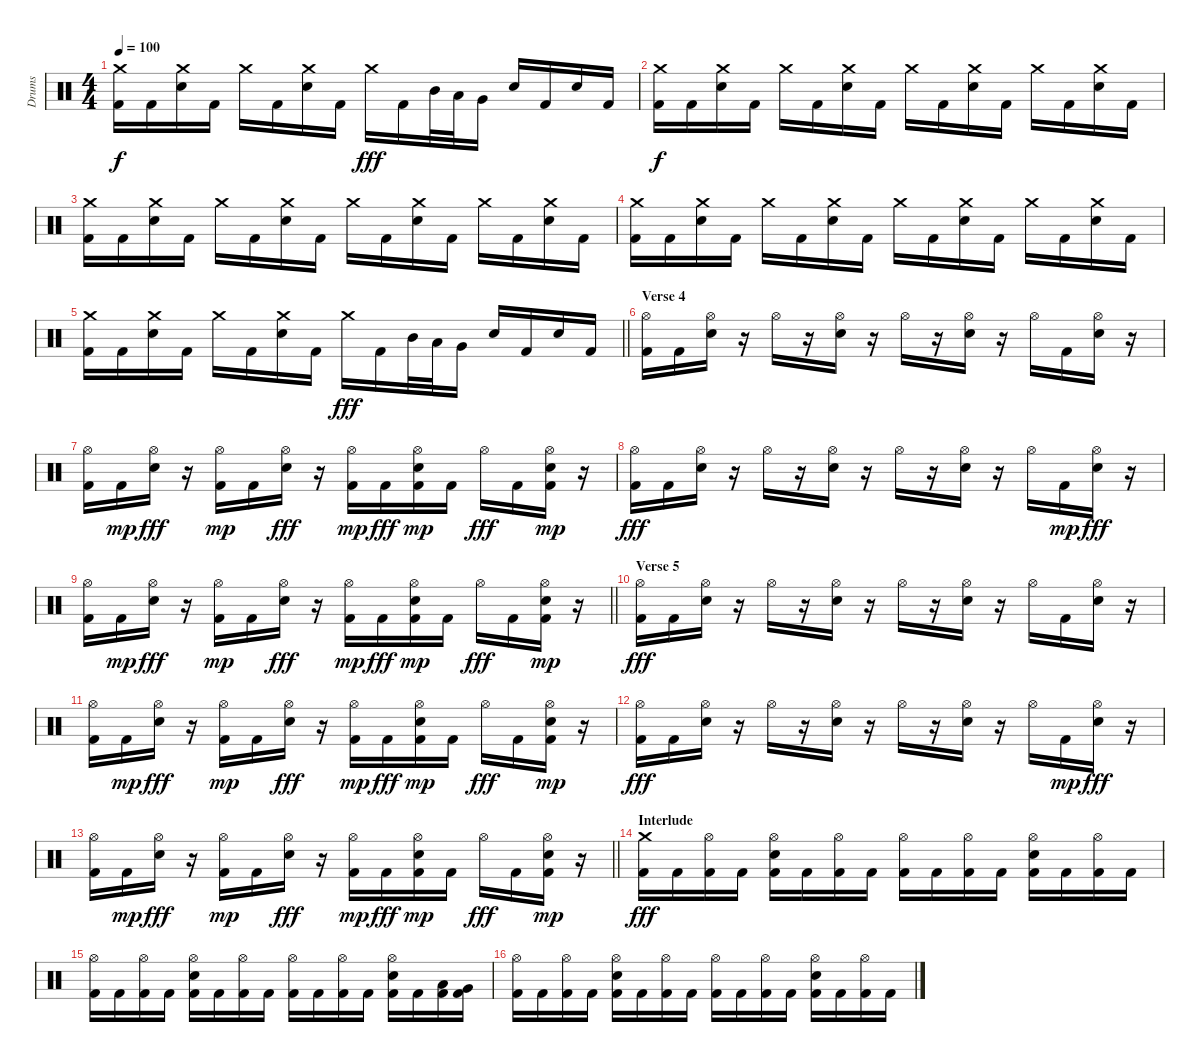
\track ("Drums" "Drums") {instrument percussion}
\staff {score}
\articulation defaults
\ts (4 4)
\tempo 100
\clef neutral
\ks c
("Crash medium (hit)" "Kick (hit) 2").16{dy f} "Kick (hit) 2".16 ("Crash medium (hit)" "Electric Snare (hit)").16 "Kick (hit) 2".16 "Crash medium (hit)".16 "Kick (hit) 2".16 ("Crash medium (hit)" "Electric Snare (hit)").16 "Kick (hit) 2".16 "Crash medium (hit)".16{dy fff} "Kick (hit) 2".16 "Mid Tom (hit)".32 "Low Tom (hit)".32 "Very Low Tom (hit)".16 "Electric Snare (hit)".16 "Kick (hit) 2".16 "Electric Snare (hit)".16 "Kick (hit) 2".16 |
("Crash medium (hit)" "Kick (hit) 2").16{dy f} "Kick (hit) 2".16 ("Crash medium (hit)" "Electric Snare (hit)").16 "Kick (hit) 2".16 "Crash medium (hit)".16 "Kick (hit) 2".16 ("Crash medium (hit)" "Electric Snare (hit)").16 "Kick (hit) 2".16 "Crash medium (hit)".16 "Kick (hit) 2".16 ("Crash medium (hit)" "Electric Snare (hit)").16 "Kick (hit) 2".16 "Crash medium (hit)".16 "Kick (hit) 2".16 ("Crash medium (hit)" "Electric Snare (hit)").16 "Kick (hit) 2".16 |
("Crash medium (hit)" "Kick (hit) 2").16 "Kick (hit) 2".16 ("Crash medium (hit)" "Electric Snare (hit)").16 "Kick (hit) 2".16 "Crash medium (hit)".16 "Kick (hit) 2".16 ("Crash medium (hit)" "Electric Snare (hit)").16 "Kick (hit) 2".16 "Crash medium (hit)".16 "Kick (hit) 2".16 ("Crash medium (hit)" "Electric Snare (hit)").16 "Kick (hit) 2".16 "Crash medium (hit)".16 "Kick (hit) 2".16 ("Crash medium (hit)" "Electric Snare (hit)").16 "Kick (hit) 2".16 |
("Crash medium (hit)" "Kick (hit) 2").16 "Kick (hit) 2".16 ("Crash medium (hit)" "Electric Snare (hit)").16 "Kick (hit) 2".16 "Crash medium (hit)".16 "Kick (hit) 2".16 ("Crash medium (hit)" "Electric Snare (hit)").16 "Kick (hit) 2".16 "Crash medium (hit)".16 "Kick (hit) 2".16 ("Crash medium (hit)" "Electric Snare (hit)").16 "Kick (hit) 2".16 "Crash medium (hit)".16 "Kick (hit) 2".16 ("Crash medium (hit)" "Electric Snare (hit)").16 "Kick (hit) 2".16 |
\barLineRight lightlight
("Crash medium (hit)" "Kick (hit) 2").16 "Kick (hit) 2".16 ("Crash medium (hit)" "Electric Snare (hit)").16 "Kick (hit) 2".16 "Crash medium (hit)".16 "Kick (hit) 2".16 ("Crash medium (hit)" "Electric Snare (hit)").16 "Kick (hit) 2".16 "Crash medium (hit)".16{dy fff} "Kick (hit) 2".16 "Mid Tom (hit)".32 "Low Tom (hit)".32 "Very Low Tom (hit)".16 "Electric Snare (hit)".16 "Kick (hit) 2".16 "Electric Snare (hit)".16 "Kick (hit) 2".16 |
\section ("" "Verse 4")
("Hi-Hat (open)" "Kick (hit) 2").16 "Kick (hit) 2".16 ("Hi-Hat (open)" "Electric Snare (hit)").16 r.16 "Hi-Hat (open)".16 r.16 ("Hi-Hat (open)" "Electric Snare (hit)").16 r.16 "Hi-Hat (open)".16 r.16 ("Hi-Hat (open)" "Electric Snare (hit)").16 r.16 "Hi-Hat (open)".16 "Kick (hit) 2".16 ("Hi-Hat (open)" "Electric Snare (hit)").16 r.16 |
("Hi-Hat (open)" "Kick (hit) 2").16 "Kick (hit) 2".16{dy mp} ("Hi-Hat (open)" "Electric Snare (hit)").16{dy fff} r.16 ("Hi-Hat (open)" "Kick (hit) 2").16{dy mp} "Kick (hit) 2".16 ("Hi-Hat (open)" "Electric Snare (hit)").16{dy fff} r.16 ("Hi-Hat (open)" "Kick (hit) 2").16{dy mp} "Kick (hit) 2".16{dy fff} ("Hi-Hat (open)" "Electric Snare (hit)" "Kick (hit) 2").16{dy mp} "Kick (hit) 2".16 "Hi-Hat (open)".16{dy fff} "Kick (hit) 2".16 ("Hi-Hat (open)" "Electric Snare (hit)" "Kick (hit) 2").16{dy mp} r.16 |
("Hi-Hat (open)" "Kick (hit) 2").16{dy fff} "Kick (hit) 2".16 ("Hi-Hat (open)" "Electric Snare (hit)").16 r.16 "Hi-Hat (open)".16 r.16 ("Hi-Hat (open)" "Electric Snare (hit)").16 r.16 "Hi-Hat (open)".16 r.16 ("Hi-Hat (open)" "Electric Snare (hit)").16 r.16 "Hi-Hat (open)".16 "Kick (hit) 2".16{dy mp} ("Hi-Hat (open)" "Electric Snare (hit)").16{dy fff} r.16 |
\barLineRight lightlight
("Hi-Hat (open)" "Kick (hit) 2").16 "Kick (hit) 2".16{dy mp} ("Hi-Hat (open)" "Electric Snare (hit)").16{dy fff} r.16 ("Hi-Hat (open)" "Kick (hit) 2").16{dy mp} "Kick (hit) 2".16 ("Hi-Hat (open)" "Electric Snare (hit)").16{dy fff} r.16 ("Hi-Hat (open)" "Kick (hit) 2").16{dy mp} "Kick (hit) 2".16{dy fff} ("Hi-Hat (open)" "Electric Snare (hit)" "Kick (hit) 2").16{dy mp} "Kick (hit) 2".16 "Hi-Hat (open)".16{dy fff} "Kick (hit) 2".16 ("Hi-Hat (open)" "Electric Snare (hit)" "Kick (hit) 2").16{dy mp} r.16 |
\section ("" "Verse 5")
("Hi-Hat (open)" "Kick (hit) 2").16{dy fff} "Kick (hit) 2".16 ("Hi-Hat (open)" "Electric Snare (hit)").16 r.16 "Hi-Hat (open)".16 r.16 ("Hi-Hat (open)" "Electric Snare (hit)").16 r.16 "Hi-Hat (open)".16 r.16 ("Hi-Hat (open)" "Electric Snare (hit)").16 r.16 "Hi-Hat (open)".16 "Kick (hit) 2".16 ("Hi-Hat (open)" "Electric Snare (hit)").16 r.16 |
("Hi-Hat (open)" "Kick (hit) 2").16 "Kick (hit) 2".16{dy mp} ("Hi-Hat (open)" "Electric Snare (hit)").16{dy fff} r.16 ("Hi-Hat (open)" "Kick (hit) 2").16{dy mp} "Kick (hit) 2".16 ("Hi-Hat (open)" "Electric Snare (hit)").16{dy fff} r.16 ("Hi-Hat (open)" "Kick (hit) 2").16{dy mp} "Kick (hit) 2".16{dy fff} ("Hi-Hat (open)" "Electric Snare (hit)" "Kick (hit) 2").16{dy mp} "Kick (hit) 2".16 "Hi-Hat (open)".16{dy fff} "Kick (hit) 2".16 ("Hi-Hat (open)" "Electric Snare (hit)" "Kick (hit) 2").16{dy mp} r.16 |
("Hi-Hat (open)" "Kick (hit) 2").16{dy fff} "Kick (hit) 2".16 ("Hi-Hat (open)" "Electric Snare (hit)").16 r.16 "Hi-Hat (open)".16 r.16 ("Hi-Hat (open)" "Electric Snare (hit)").16 r.16 "Hi-Hat (open)".16 r.16 ("Hi-Hat (open)" "Electric Snare (hit)").16 r.16 "Hi-Hat (open)".16 "Kick (hit) 2".16{dy mp} ("Hi-Hat (open)" "Electric Snare (hit)").16{dy fff} r.16 |
\barLineRight lightlight
("Hi-Hat (open)" "Kick (hit) 2").16 "Kick (hit) 2".16{dy mp} ("Hi-Hat (open)" "Electric Snare (hit)").16{dy fff} r.16 ("Hi-Hat (open)" "Kick (hit) 2").16{dy mp} "Kick (hit) 2".16 ("Hi-Hat (open)" "Electric Snare (hit)").16{dy fff} r.16 ("Hi-Hat (open)" "Kick (hit) 2").16{dy mp} "Kick (hit) 2".16{dy fff} ("Hi-Hat (open)" "Electric Snare (hit)" "Kick (hit) 2").16{dy mp} "Kick (hit) 2".16 "Hi-Hat (open)".16{dy fff} "Kick (hit) 2".16 ("Hi-Hat (open)" "Electric Snare (hit)" "Kick (hit) 2").16{dy mp} r.16 |
\section ("" "Interlude")
("Crash medium (hit)" "Kick (hit) 2").16{dy fff} "Kick (hit) 2".16 ("Hi-Hat (open)" "Kick (hit) 2").16 "Kick (hit) 2".16 ("Hi-Hat (open)" "Electric Snare (hit)" "Kick (hit) 2").16 "Kick (hit) 2".16 ("Hi-Hat (open)" "Kick (hit) 2").16 "Kick (hit) 2".16 ("Hi-Hat (open)" "Kick (hit) 2").16 "Kick (hit) 2".16 ("Hi-Hat (open)" "Kick (hit) 2").16 "Kick (hit) 2".16 ("Hi-Hat (open)" "Electric Snare (hit)" "Kick (hit) 2").16 "Kick (hit) 2".16 ("Hi-Hat (open)" "Kick (hit) 2").16 "Kick (hit) 2".16 |
("Hi-Hat (open)" "Kick (hit) 2").16 "Kick (hit) 2".16 ("Hi-Hat (open)" "Kick (hit) 2").16 "Kick (hit) 2".16 ("Hi-Hat (open)" "Electric Snare (hit)" "Kick (hit) 2").16 "Kick (hit) 2".16 ("Hi-Hat (open)" "Kick (hit) 2").16 "Kick (hit) 2".16 ("Hi-Hat (open)" "Kick (hit) 2").16 "Kick (hit) 2".16 ("Hi-Hat (open)" "Kick (hit) 2").16 "Kick (hit) 2".16 ("Hi-Hat (open)" "Electric Snare (hit)" "Kick (hit) 2").16 "Kick (hit) 2".16 ("Low Tom (hit)" "Kick (hit) 2").16 ("Very Low Tom (hit)" "Kick (hit) 2").16 |
("Hi-Hat (open)" "Kick (hit) 2").16 "Kick (hit) 2".16 ("Hi-Hat (open)" "Kick (hit) 2").16 "Kick (hit) 2".16 ("Hi-Hat (open)" "Electric Snare (hit)" "Kick (hit) 2").16 "Kick (hit) 2".16 ("Hi-Hat (open)" "Kick (hit) 2").16 "Kick (hit) 2".16 ("Hi-Hat (open)" "Kick (hit) 2").16 "Kick (hit) 2".16 ("Hi-Hat (open)" "Kick (hit) 2").16 "Kick (hit) 2".16 ("Hi-Hat (open)" "Electric Snare (hit)" "Kick (hit) 2").16 "Kick (hit) 2".16 ("Hi-Hat (open)" "Kick (hit) 2").16 "Kick (hit) 2".16
